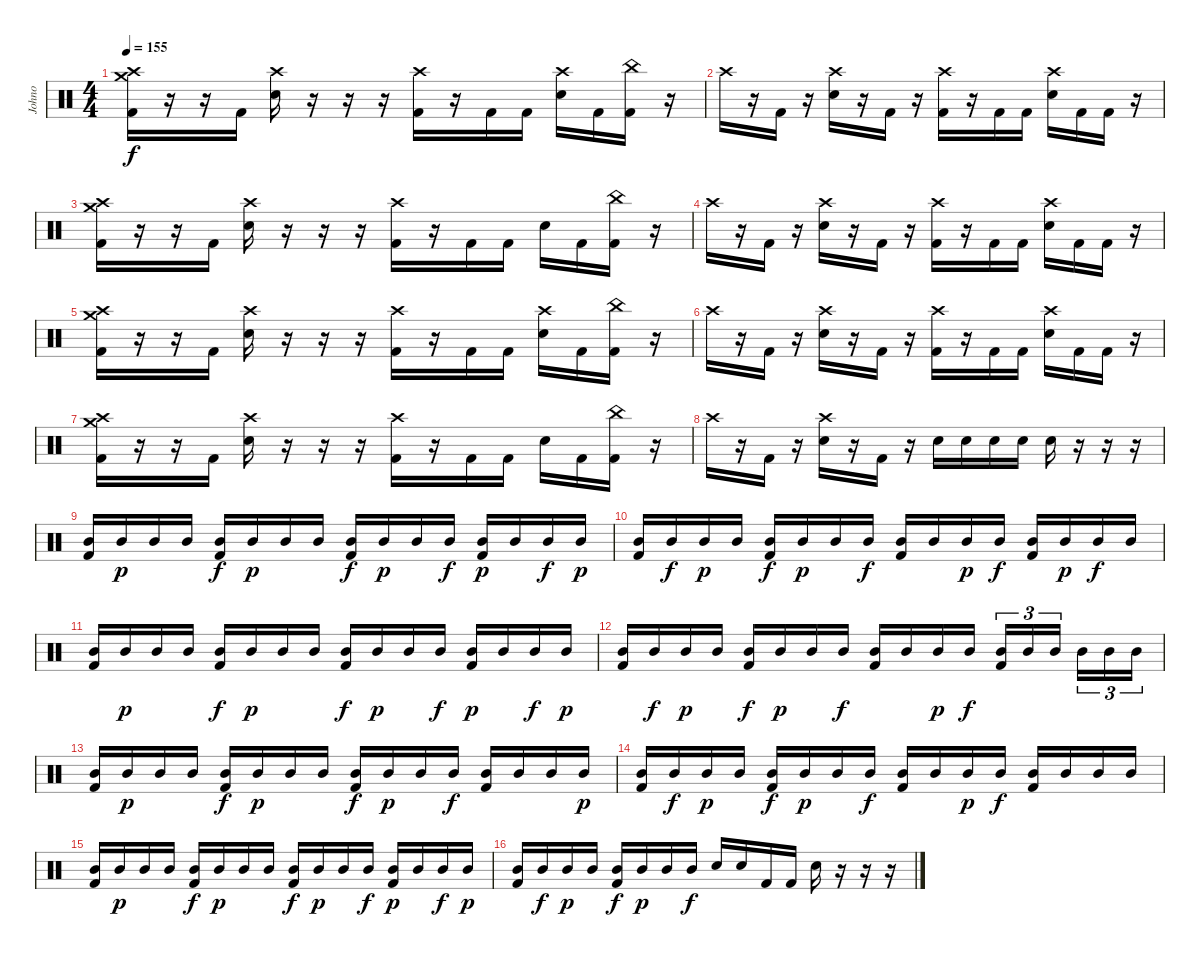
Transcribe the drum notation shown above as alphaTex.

\track ("Johno" "Johno") {instrument percussion}
\staff {score}
\articulation defaults
\ts (4 4)
\tempo 155
\clef neutral
\ks c
("Crash medium (hit)" "Crash high (hit)" "Kick (hit) 2").16{dy f} r.16 r.16 "Kick (hit) 2".16 ("Crash high (hit)" "Electric Snare (hit)").16 r.16 r.16 r.16 ("Crash high (hit)" "Kick (hit) 2").16 r.16 "Kick (hit) 2".16 "Kick (hit) 2".16 ("Crash high (hit)" "Electric Snare (hit)").16 "Kick (hit) 2".16 ("China (hit)" "Kick (hit) 2").16 r.16 |
"Crash high (hit)".16 r.16 "Kick (hit) 2".16 r.16 ("Crash high (hit)" "Electric Snare (hit)").16 r.16 "Kick (hit) 2".16 r.16 ("Crash high (hit)" "Kick (hit) 2").16 r.16 "Kick (hit) 2".16 "Kick (hit) 2".16 ("Crash high (hit)" "Electric Snare (hit)").16 "Kick (hit) 2".16 "Kick (hit) 2".16 r.16 |
("Crash medium (hit)" "Crash high (hit)" "Kick (hit) 2").16 r.16 r.16 "Kick (hit) 2".16 ("Crash high (hit)" "Electric Snare (hit)").16 r.16 r.16 r.16 ("Crash high (hit)" "Kick (hit) 2").16 r.16 "Kick (hit) 2".16 "Kick (hit) 2".16 "Electric Snare (hit)".16 "Kick (hit) 2".16 ("China (hit)" "Kick (hit) 2").16 r.16 |
"Crash high (hit)".16 r.16 "Kick (hit) 2".16 r.16 ("Crash high (hit)" "Electric Snare (hit)").16 r.16 "Kick (hit) 2".16 r.16 ("Crash high (hit)" "Kick (hit) 2").16 r.16 "Kick (hit) 2".16 "Kick (hit) 2".16 ("Crash high (hit)" "Electric Snare (hit)").16 "Kick (hit) 2".16 "Kick (hit) 2".16 r.16 |
("Crash medium (hit)" "Crash high (hit)" "Kick (hit) 2").16 r.16 r.16 "Kick (hit) 2".16 ("Crash high (hit)" "Electric Snare (hit)").16 r.16 r.16 r.16 ("Crash high (hit)" "Kick (hit) 2").16 r.16 "Kick (hit) 2".16 "Kick (hit) 2".16 ("Crash high (hit)" "Electric Snare (hit)").16 "Kick (hit) 2".16 ("China (hit)" "Kick (hit) 2").16 r.16 |
"Crash high (hit)".16 r.16 "Kick (hit) 2".16 r.16 ("Crash high (hit)" "Electric Snare (hit)").16 r.16 "Kick (hit) 2".16 r.16 ("Crash high (hit)" "Kick (hit) 2").16 r.16 "Kick (hit) 2".16 "Kick (hit) 2".16 ("Crash high (hit)" "Electric Snare (hit)").16 "Kick (hit) 2".16 "Kick (hit) 2".16 r.16 |
("Crash medium (hit)" "Crash high (hit)" "Kick (hit) 2").16 r.16 r.16 "Kick (hit) 2".16 ("Crash high (hit)" "Electric Snare (hit)").16 r.16 r.16 r.16 ("Crash high (hit)" "Kick (hit) 2").16 r.16 "Kick (hit) 2".16 "Kick (hit) 2".16 "Electric Snare (hit)".16 "Kick (hit) 2".16 ("China (hit)" "Kick (hit) 2").16 r.16 |
"Crash high (hit)".16 r.16 "Kick (hit) 2".16 r.16 ("Crash high (hit)" "Electric Snare (hit)").16 r.16 "Kick (hit) 2".16 r.16 "Electric Snare (hit)".16 "Electric Snare (hit)".16 "Electric Snare (hit)".16 "Electric Snare (hit)".16 "Electric Snare (hit)".16 r.16 r.16 r.16 |
("Mid Tom (hit)" "Kick (hit) 2").16 "Mid Tom (hit)".16{dy p} "Mid Tom (hit)".16 "Mid Tom (hit)".16 ("Mid Tom (hit)" "Kick (hit) 2").16{dy f} "Mid Tom (hit)".16{dy p} "Mid Tom (hit)".16 "Mid Tom (hit)".16 ("Mid Tom (hit)" "Kick (hit) 2").16{dy f} "Mid Tom (hit)".16{dy p} "Mid Tom (hit)".16 "Mid Tom (hit)".16{dy f} ("Mid Tom (hit)" "Kick (hit) 2").16{dy p} "Mid Tom (hit)".16 "Mid Tom (hit)".16{dy f} "Mid Tom (hit)".16{dy p} |
("Mid Tom (hit)" "Kick (hit) 2").16 "Mid Tom (hit)".16{dy f} "Mid Tom (hit)".16{dy p} "Mid Tom (hit)".16 ("Mid Tom (hit)" "Kick (hit) 2").16{dy f} "Mid Tom (hit)".16{dy p} "Mid Tom (hit)".16 "Mid Tom (hit)".16{dy f} ("Mid Tom (hit)" "Kick (hit) 2").16 "Mid Tom (hit)".16 "Mid Tom (hit)".16{dy p} "Mid Tom (hit)".16{dy f} ("Mid Tom (hit)" "Kick (hit) 2").16 "Mid Tom (hit)".16{dy p} "Mid Tom (hit)".16{dy f} "Mid Tom (hit)".16 |
("Mid Tom (hit)" "Kick (hit) 2").16 "Mid Tom (hit)".16{dy p} "Mid Tom (hit)".16 "Mid Tom (hit)".16 ("Mid Tom (hit)" "Kick (hit) 2").16{dy f} "Mid Tom (hit)".16{dy p} "Mid Tom (hit)".16 "Mid Tom (hit)".16 ("Mid Tom (hit)" "Kick (hit) 2").16{dy f} "Mid Tom (hit)".16{dy p} "Mid Tom (hit)".16 "Mid Tom (hit)".16{dy f} ("Mid Tom (hit)" "Kick (hit) 2").16{dy p} "Mid Tom (hit)".16 "Mid Tom (hit)".16{dy f} "Mid Tom (hit)".16{dy p} |
("Mid Tom (hit)" "Kick (hit) 2").16 "Mid Tom (hit)".16{dy f} "Mid Tom (hit)".16{dy p} "Mid Tom (hit)".16 ("Mid Tom (hit)" "Kick (hit) 2").16{dy f} "Mid Tom (hit)".16{dy p} "Mid Tom (hit)".16 "Mid Tom (hit)".16{dy f} ("Mid Tom (hit)" "Kick (hit) 2").16 "Mid Tom (hit)".16 "Mid Tom (hit)".16{dy p} "Mid Tom (hit)".16{dy f} ("Mid Tom (hit)" "Kick (hit) 2").16{tu (3 2)} "Mid Tom (hit)".16{tu (3 2)} "Mid Tom (hit)".16{tu (3 2) beam splitsecondary} "Mid Tom (hit)".16{tu (3 2)} "Mid Tom (hit)".16{tu (3 2)} "Mid Tom (hit)".16{tu (3 2)} |
("Mid Tom (hit)" "Kick (hit) 2").16 "Mid Tom (hit)".16{dy p} "Mid Tom (hit)".16 "Mid Tom (hit)".16 ("Mid Tom (hit)" "Kick (hit) 2").16{dy f} "Mid Tom (hit)".16{dy p} "Mid Tom (hit)".16 "Mid Tom (hit)".16 ("Mid Tom (hit)" "Kick (hit) 2").16{dy f} "Mid Tom (hit)".16{dy p} "Mid Tom (hit)".16 "Mid Tom (hit)".16{dy f} ("Mid Tom (hit)" "Kick (hit) 2").16 "Mid Tom (hit)".16 "Mid Tom (hit)".16 "Mid Tom (hit)".16{dy p} |
("Mid Tom (hit)" "Kick (hit) 2").16 "Mid Tom (hit)".16{dy f} "Mid Tom (hit)".16{dy p} "Mid Tom (hit)".16 ("Mid Tom (hit)" "Kick (hit) 2").16{dy f} "Mid Tom (hit)".16{dy p} "Mid Tom (hit)".16 "Mid Tom (hit)".16{dy f} ("Mid Tom (hit)" "Kick (hit) 2").16 "Mid Tom (hit)".16 "Mid Tom (hit)".16{dy p} "Mid Tom (hit)".16{dy f} ("Mid Tom (hit)" "Kick (hit) 2").16 "Mid Tom (hit)".16 "Mid Tom (hit)".16 "Mid Tom (hit)".16 |
("Mid Tom (hit)" "Kick (hit) 2").16 "Mid Tom (hit)".16{dy p} "Mid Tom (hit)".16 "Mid Tom (hit)".16 ("Mid Tom (hit)" "Kick (hit) 2").16{dy f} "Mid Tom (hit)".16{dy p} "Mid Tom (hit)".16 "Mid Tom (hit)".16 ("Mid Tom (hit)" "Kick (hit) 2").16{dy f} "Mid Tom (hit)".16{dy p} "Mid Tom (hit)".16 "Mid Tom (hit)".16{dy f} ("Mid Tom (hit)" "Kick (hit) 2").16{dy p} "Mid Tom (hit)".16 "Mid Tom (hit)".16{dy f} "Mid Tom (hit)".16{dy p} |
("Mid Tom (hit)" "Kick (hit) 2").16 "Mid Tom (hit)".16{dy f} "Mid Tom (hit)".16{dy p} "Mid Tom (hit)".16 ("Mid Tom (hit)" "Kick (hit) 2").16{dy f} "Mid Tom (hit)".16{dy p} "Mid Tom (hit)".16 "Mid Tom (hit)".16{dy f} "Electric Snare (hit)".16 "Electric Snare (hit)".16 "Kick (hit) 2".16 "Kick (hit) 2".16 "Electric Snare (hit)".16 r.16 r.16 r.16
